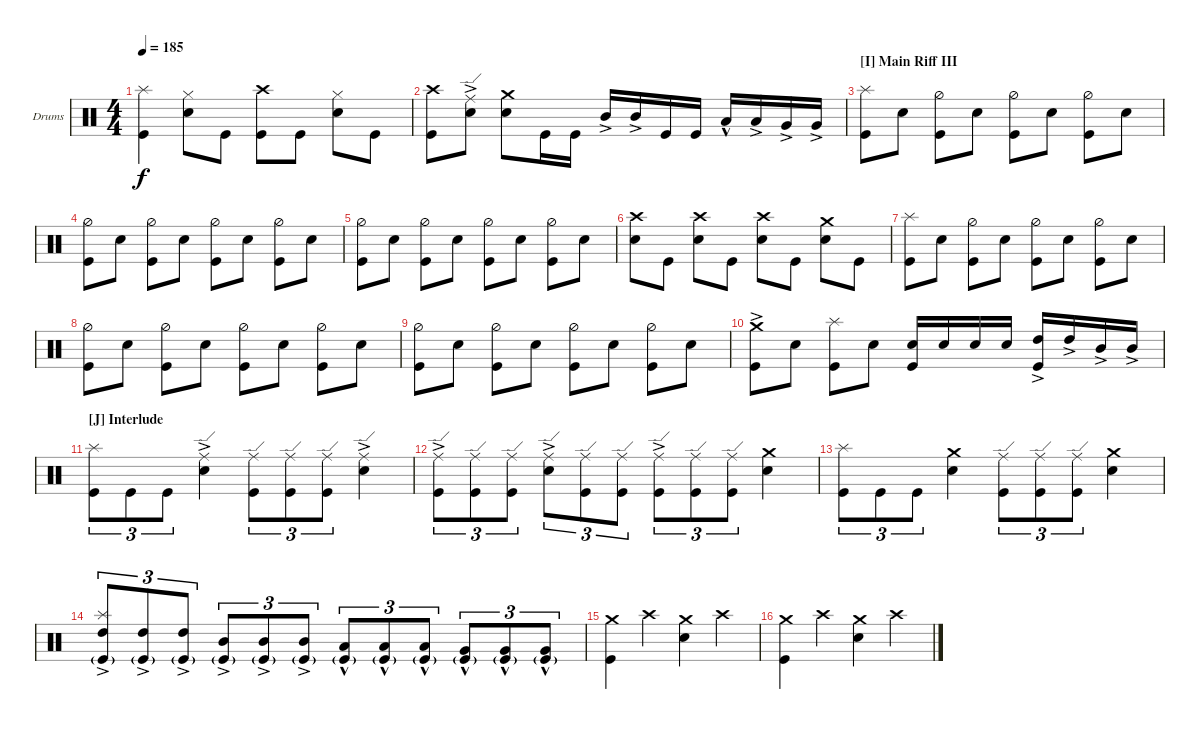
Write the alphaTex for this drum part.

\defaultSystemsLayout 4
\bracketExtendMode groupsimilarinstruments
\firstSystemTrackNameOrientation horizontal
\otherSystemsTrackNameOrientation horizontal
\track ("Drumkit" "Drums") {instrument percussion}
\staff {score}
\articulation defaults
\ts (4 4)
\tempo 185
\clef neutral
\ks c
("Kick (hit)" "Splash (hit)").4{dy f} ("Snare (hit) 2" "Hi-Hat (closed)").8 "Kick (hit)".8 ("Kick (hit)" "Crash high (hit)").8 "Kick (hit)".8 ("Snare (hit) 2" "Hi-Hat (closed)").8 "Kick (hit)".8 |
("Kick (hit)" "Crash high (hit)").8 ("Snare (hit) 2" "Ride (edge)"{ac}).8 ("Snare (hit) 2" "Crash medium (hit)").8 "Kick (hit)".16 "Kick (hit)".16 "Mid Tom (hit)"{ac}.16 "Mid Tom (hit)"{ac}.16 "Kick (hit)".16 "Kick (hit)".16 "Low Tom (hit)"{hac}.16 "Low Tom (hit)"{ac}.16 "Very Low Tom (hit)"{ac}.16 "Very Low Tom (hit)"{ac}.16 |
\section ("I" "Main Riff III")
("Kick (hit)" "Splash (hit)").8 "Snare (hit) 2".8 ("Kick (hit)" "Hi-Hat (half)").8 "Snare (hit) 2".8 ("Kick (hit)" "Hi-Hat (half)").8 "Snare (hit) 2".8 ("Kick (hit)" "Hi-Hat (half)").8 "Snare (hit) 2".8 |
("Kick (hit)" "Hi-Hat (half)").8 "Snare (hit) 2".8 ("Kick (hit)" "Hi-Hat (half)").8 "Snare (hit) 2".8 ("Kick (hit)" "Hi-Hat (half)").8 "Snare (hit) 2".8 ("Kick (hit)" "Hi-Hat (half)").8 "Snare (hit) 2".8 |
("Kick (hit)" "Hi-Hat (half)").8 "Snare (hit) 2".8 ("Kick (hit)" "Hi-Hat (half)").8 "Snare (hit) 2".8 ("Kick (hit)" "Hi-Hat (half)").8 "Snare (hit) 2".8 ("Kick (hit)" "Hi-Hat (half)").8 "Snare (hit) 2".8 |
("Snare (hit) 2" "Crash high (hit)").8 "Kick (hit)".8 ("Snare (hit) 2" "Crash high (hit)").8 "Kick (hit)".8 ("Snare (hit) 2" "Crash high (hit)").8 "Kick (hit)".8 ("Snare (hit) 2" "Crash medium (hit)").8 "Kick (hit)".8 |
("Kick (hit)" "Splash (hit)").8 "Snare (hit) 2".8 ("Kick (hit)" "Hi-Hat (half)").8 "Snare (hit) 2".8 ("Kick (hit)" "Hi-Hat (half)").8 "Snare (hit) 2".8 ("Kick (hit)" "Hi-Hat (half)").8 "Snare (hit) 2".8 |
("Kick (hit)" "Hi-Hat (half)").8 "Snare (hit) 2".8 ("Kick (hit)" "Hi-Hat (half)").8 "Snare (hit) 2".8 ("Kick (hit)" "Hi-Hat (half)").8 "Snare (hit) 2".8 ("Kick (hit)" "Hi-Hat (half)").8 "Snare (hit) 2".8 |
("Kick (hit)" "Hi-Hat (half)").8 "Snare (hit) 2".8 ("Kick (hit)" "Hi-Hat (half)").8 "Snare (hit) 2".8 ("Kick (hit)" "Hi-Hat (half)").8 "Snare (hit) 2".8 ("Kick (hit)" "Hi-Hat (half)").8 "Snare (hit) 2".8 |
("Kick (hit)" "Crash medium (hit)"{ac}).8 "Snare (hit) 2".8 ("Kick (hit)" "Splash (hit)").8 "Snare (hit) 2".8 ("Snare (hit) 2" "Kick (hit)").16 "Snare (hit) 2".16 "Snare (hit) 2".16 "Snare (hit) 2".16 ("Kick (hit)" "High Tom (hit)"{ac}).16 "High Tom (hit)"{ac}.16 "Mid Tom (hit)"{ac}.16 "Mid Tom (hit)"{ac}.16 |
\section ("J" "Interlude")
("Kick (hit)" "Splash (hit)").8{tu (3 2)} "Kick (hit)".8{tu (3 2)} "Kick (hit)".8{tu (3 2)} ("Snare (hit) 2" "Ride (edge)"{ac}).4 ("Kick (hit)" "Ride (edge)").8{tu (3 2)} ("Kick (hit)" "Ride (edge)").8{tu (3 2)} ("Kick (hit)" "Ride (edge)").8{tu (3 2)} ("Snare (hit) 2" "Ride (edge)"{ac}).4 |
("Kick (hit)" "Ride (edge)"{ac}).8{tu (3 2)} ("Kick (hit)" "Ride (edge)").8{tu (3 2)} ("Kick (hit)" "Ride (edge)").8{tu (3 2)} ("Snare (hit) 2" "Ride (edge)"{ac}).8{tu (3 2)} ("Kick (hit)" "Ride (edge)").8{tu (3 2)} ("Kick (hit)" "Ride (edge)").8{tu (3 2)} ("Kick (hit)" "Ride (edge)"{ac}).8{tu (3 2)} ("Kick (hit)" "Ride (edge)").8{tu (3 2)} ("Kick (hit)" "Ride (edge)").8{tu (3 2)} ("Snare (hit) 2" "Crash medium (hit)").4 |
("Kick (hit)" "Splash (hit)").8{tu (3 2)} "Kick (hit)".8{tu (3 2)} "Kick (hit)".8{tu (3 2)} ("Snare (hit) 2" "Crash medium (hit)").4 ("Kick (hit)" "Ride (edge)").8{tu (3 2)} ("Kick (hit)" "Ride (edge)").8{tu (3 2)} ("Kick (hit)" "Ride (edge)").8{tu (3 2)} ("Snare (hit) 2" "Crash medium (hit)").4 |
("Kick (hit)"{g} "Splash (hit)" "High Tom (hit)"{ac}).8{tu (3 2)} ("Kick (hit)"{g} "High Tom (hit)"{ac}).8{tu (3 2)} ("Kick (hit)"{g} "High Tom (hit)"{ac}).8{tu (3 2)} ("Kick (hit)"{g} "Mid Tom (hit)"{ac}).8{tu (3 2)} ("Kick (hit)"{g} "Mid Tom (hit)"{ac}).8{tu (3 2)} ("Kick (hit)"{g} "Mid Tom (hit)"{ac}).8{tu (3 2)} ("Kick (hit)"{g} "Low Tom (hit)"{hac}).8{tu (3 2)} ("Kick (hit)"{g} "Low Tom (hit)"{hac}).8{tu (3 2)} ("Kick (hit)"{g} "Low Tom (hit)"{hac}).8{tu (3 2)} ("Kick (hit)"{g} "Very Low Tom (hit)"{hac}).8{tu (3 2)} ("Kick (hit)"{g} "Very Low Tom (hit)"{hac}).8{tu (3 2)} ("Kick (hit)"{g} "Very Low Tom (hit)"{hac}).8{tu (3 2)} |
("Kick (hit)" "Crash medium (hit)").4 "Crash high (hit)".4 ("Snare (hit) 2" "Crash medium (hit)").4 "Crash high (hit)".4 |
("Kick (hit)" "Crash medium (hit)").4 "Crash high (hit)".4 ("Snare (hit) 2" "Crash medium (hit)").4 "Crash high (hit)".4
